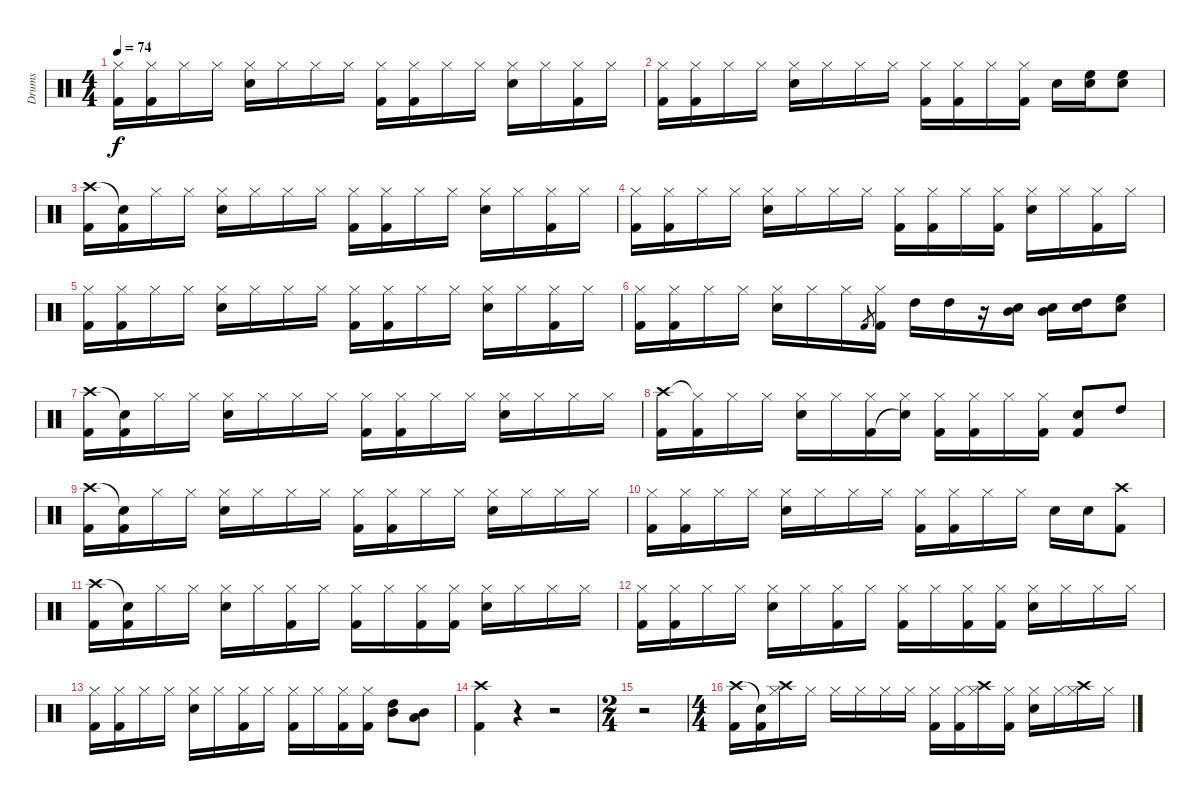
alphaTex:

\track ("Drums" "Drums") {instrument percussion}
\staff {score}
\articulation defaults
\ts (4 4)
\tempo 74
\clef neutral
\ks c
("Hi-Hat (closed)" "Kick (hit) 2").16{dy f} ("Hi-Hat (closed)" "Kick (hit) 2").16 "Hi-Hat (closed)".16 "Hi-Hat (closed)".16 ("Hi-Hat (closed)" "Electric Snare (hit)").16 "Hi-Hat (closed)".16 "Hi-Hat (closed)".16 "Hi-Hat (closed)".16 ("Hi-Hat (closed)" "Kick (hit) 2").16 ("Hi-Hat (closed)" "Kick (hit) 2").16 "Hi-Hat (closed)".16 "Hi-Hat (closed)".16 ("Hi-Hat (closed)" "Electric Snare (hit)").16 "Hi-Hat (closed)".16 ("Hi-Hat (closed)" "Kick (hit) 2").16 "Hi-Hat (closed)".16 |
("Hi-Hat (closed)" "Kick (hit) 2").16 ("Hi-Hat (closed)" "Kick (hit) 2").16 "Hi-Hat (closed)".16 "Hi-Hat (closed)".16 ("Hi-Hat (closed)" "Electric Snare (hit)").16 "Hi-Hat (closed)".16 "Hi-Hat (closed)".16 "Hi-Hat (closed)".16 ("Hi-Hat (closed)" "Kick (hit) 2").16 ("Hi-Hat (closed)" "Kick (hit) 2").16 "Hi-Hat (closed)".16 ("Hi-Hat (closed)" "Kick (hit) 2").16 "Electric Snare (hit)".16 ("High Floor Tom (hit)" "Electric Snare (hit)").16 ("High Floor Tom (hit)" "Electric Snare (hit)").8 |
("Crash high (hit)" "Kick (hit) 2").16 ("Snare (hit)"{t} "Kick (hit) 2").16 "Hi-Hat (closed)".16 "Hi-Hat (closed)".16 ("Hi-Hat (closed)" "Electric Snare (hit)").16 "Hi-Hat (closed)".16 "Hi-Hat (closed)".16 "Hi-Hat (closed)".16 ("Hi-Hat (closed)" "Kick (hit) 2").16 ("Hi-Hat (closed)" "Kick (hit) 2").16 "Hi-Hat (closed)".16 "Hi-Hat (closed)".16 ("Hi-Hat (closed)" "Electric Snare (hit)").16 "Hi-Hat (closed)".16 ("Hi-Hat (closed)" "Kick (hit) 2").16 "Hi-Hat (closed)".16 |
("Hi-Hat (closed)" "Kick (hit) 2").16 ("Hi-Hat (closed)" "Kick (hit) 2").16 "Hi-Hat (closed)".16 "Hi-Hat (closed)".16 ("Hi-Hat (closed)" "Electric Snare (hit)").16 "Hi-Hat (closed)".16 "Hi-Hat (closed)".16 "Hi-Hat (closed)".16 ("Hi-Hat (closed)" "Kick (hit) 2").16 ("Hi-Hat (closed)" "Kick (hit) 2").16 "Hi-Hat (closed)".16 ("Hi-Hat (closed)" "Kick (hit) 2").16 ("Hi-Hat (closed)" "Electric Snare (hit)").16 "Hi-Hat (closed)".16 ("Hi-Hat (closed)" "Kick (hit) 2").16 "Hi-Hat (closed)".16 |
("Hi-Hat (closed)" "Kick (hit) 2").16 ("Hi-Hat (closed)" "Kick (hit) 2").16 "Hi-Hat (closed)".16 "Hi-Hat (closed)".16 ("Hi-Hat (closed)" "Electric Snare (hit)").16 "Hi-Hat (closed)".16 "Hi-Hat (closed)".16 "Hi-Hat (closed)".16 ("Hi-Hat (closed)" "Kick (hit) 2").16 ("Hi-Hat (closed)" "Kick (hit) 2").16 "Hi-Hat (closed)".16 "Hi-Hat (closed)".16 ("Hi-Hat (closed)" "Electric Snare (hit)").16 "Hi-Hat (closed)".16 ("Hi-Hat (closed)" "Kick (hit) 2").16 "Hi-Hat (closed)".16 |
("Hi-Hat (closed)" "Kick (hit) 2").16 ("Hi-Hat (closed)" "Kick (hit) 2").16 "Hi-Hat (closed)".16 "Hi-Hat (closed)".16 ("Hi-Hat (closed)" "Electric Snare (hit)").16 "Hi-Hat (closed)".16 "Hi-Hat (closed)".16 "Kick (hit) 2".8{gr} ("Hi-Hat (closed)" "Kick (hit) 2").16 "High Tom (hit)".16 "High Tom (hit)".16 r.16 ("Mid Tom (hit)" "Electric Snare (hit)").16 ("Mid Tom (hit)" "Electric Snare (hit)").16 ("High Tom (hit)" "Electric Snare (hit)").16 ("High Floor Tom (hit)" "Electric Snare (hit)").8 |
("Crash high (hit)" "Kick (hit) 2").16 ("Snare (hit)"{t} "Kick (hit) 2").16 "Hi-Hat (closed)".16 "Hi-Hat (closed)".16 ("Hi-Hat (closed)" "Electric Snare (hit)").16 "Hi-Hat (closed)".16 "Hi-Hat (closed)".16 "Hi-Hat (closed)".16 ("Hi-Hat (closed)" "Kick (hit) 2").16 ("Hi-Hat (closed)" "Kick (hit) 2").16 "Hi-Hat (closed)".16 "Hi-Hat (closed)".16 ("Hi-Hat (closed)" "Electric Snare (hit)").16 "Hi-Hat (closed)".16 "Hi-Hat (closed)".16 "Hi-Hat (closed)".16 |
("Crash high (hit)" "Kick (hit) 2").16 ("Hi-Hat (closed)"{t} "Kick (hit) 2").16 "Hi-Hat (closed)".16 "Hi-Hat (closed)".16 ("Hi-Hat (closed)" "Electric Snare (hit)").16 "Hi-Hat (closed)".16 ("Hi-Hat (closed)" "Kick (hit) 2").16 ("Hi-Hat (closed)" "Snare (hit)"{t}).16 ("Hi-Hat (closed)" "Kick (hit) 2").16 ("Hi-Hat (closed)" "Kick (hit) 2").16 "Hi-Hat (closed)".16 ("Hi-Hat (closed)" "Kick (hit) 2").16 ("Electric Snare (hit)" "Kick (hit) 2").8 "High Tom (hit)".8 |
("Crash high (hit)" "Kick (hit) 2").16 ("Snare (hit)"{t} "Kick (hit) 2").16 "Hi-Hat (closed)".16 "Hi-Hat (closed)".16 ("Hi-Hat (closed)" "Electric Snare (hit)").16 "Hi-Hat (closed)".16 "Hi-Hat (closed)".16 "Hi-Hat (closed)".16 ("Hi-Hat (closed)" "Kick (hit) 2").16 ("Hi-Hat (closed)" "Kick (hit) 2").16 "Hi-Hat (closed)".16 "Hi-Hat (closed)".16 ("Hi-Hat (closed)" "Electric Snare (hit)").16 "Hi-Hat (closed)".16 "Hi-Hat (closed)".16 "Hi-Hat (closed)".16 |
("Hi-Hat (closed)" "Kick (hit) 2").16 ("Hi-Hat (closed)" "Kick (hit) 2").16 "Hi-Hat (closed)".16 "Hi-Hat (closed)".16 ("Hi-Hat (closed)" "Electric Snare (hit)").16 "Hi-Hat (closed)".16 "Hi-Hat (closed)".16 "Hi-Hat (closed)".16 ("Hi-Hat (closed)" "Kick (hit) 2").16 ("Hi-Hat (closed)" "Kick (hit) 2").16 "Hi-Hat (closed)".16 "Hi-Hat (closed)".16 "Electric Snare (hit)".16 "Electric Snare (hit)".16 ("Crash high (hit)" "Kick (hit) 2").8 |
("Crash high (hit)" "Kick (hit) 2").16 ("Snare (hit)"{t} "Kick (hit) 2").16 "Hi-Hat (closed)".16 "Hi-Hat (closed)".16 ("Hi-Hat (closed)" "Electric Snare (hit)").16 "Hi-Hat (closed)".16 ("Hi-Hat (closed)" "Kick (hit) 2").16 "Hi-Hat (closed)".16 ("Hi-Hat (closed)" "Kick (hit) 2").16 "Hi-Hat (closed)".16 ("Hi-Hat (closed)" "Kick (hit) 2").16 ("Hi-Hat (closed)" "Kick (hit) 2").16 ("Hi-Hat (closed)" "Electric Snare (hit)").16 "Hi-Hat (closed)".16 "Hi-Hat (closed)".16 "Hi-Hat (closed)".16 |
("Hi-Hat (closed)" "Kick (hit) 2").16 ("Hi-Hat (closed)" "Kick (hit) 2").16 "Hi-Hat (closed)".16 "Hi-Hat (closed)".16 ("Hi-Hat (closed)" "Electric Snare (hit)").16 "Hi-Hat (closed)".16 ("Hi-Hat (closed)" "Kick (hit) 2").16 "Hi-Hat (closed)".16 ("Hi-Hat (closed)" "Kick (hit) 2").16 "Hi-Hat (closed)".16 ("Hi-Hat (closed)" "Kick (hit) 2").16 ("Hi-Hat (closed)" "Kick (hit) 2").16 ("Hi-Hat (closed)" "Electric Snare (hit)").16 "Hi-Hat (closed)".16 "Hi-Hat (closed)".16 "Hi-Hat (closed)".16 |
("Hi-Hat (closed)" "Kick (hit) 2").16 ("Hi-Hat (closed)" "Kick (hit) 2").16 "Hi-Hat (closed)".16 "Hi-Hat (closed)".16 ("Hi-Hat (closed)" "Electric Snare (hit)").16 "Hi-Hat (closed)".16 ("Hi-Hat (closed)" "Kick (hit) 2").16 "Hi-Hat (closed)".16 ("Hi-Hat (closed)" "Kick (hit) 2").16 "Hi-Hat (closed)".16 ("Hi-Hat (closed)" "Kick (hit) 2").16 ("Hi-Hat (closed)" "Kick (hit) 2").16 ("Mid Tom (hit)" "High Tom (hit)").8 ("Mid Tom (hit)" "Low Tom (hit)").8 |
("Crash high (hit)" "Kick (hit) 2").4 r.4 r.2 |
\ts (2 4)
r.2 |
\ts (4 4)
("Crash high (hit)" "Kick (hit) 2").16 ("Snare (hit)"{t} "Kick (hit) 2").16 ("Hi-Hat (closed)" "Crash high (hit)").16 "Hi-Hat (closed)".16 "Hi-Hat (closed)".16 "Hi-Hat (closed)".16 "Hi-Hat (closed)".16 "Hi-Hat (closed)".16 ("Hi-Hat (closed)" "Kick (hit) 2").16 ("Hi-Hat (closed)" "Kick (hit) 2").16 ("Hi-Hat (closed)" "Crash high (hit)").16 ("Hi-Hat (closed)" "Kick (hit) 2").16 ("Hi-Hat (closed)" "Electric Snare (hit)").16 "Hi-Hat (closed)".16 ("Hi-Hat (closed)" "Crash high (hit)").16 "Hi-Hat (closed)".16
